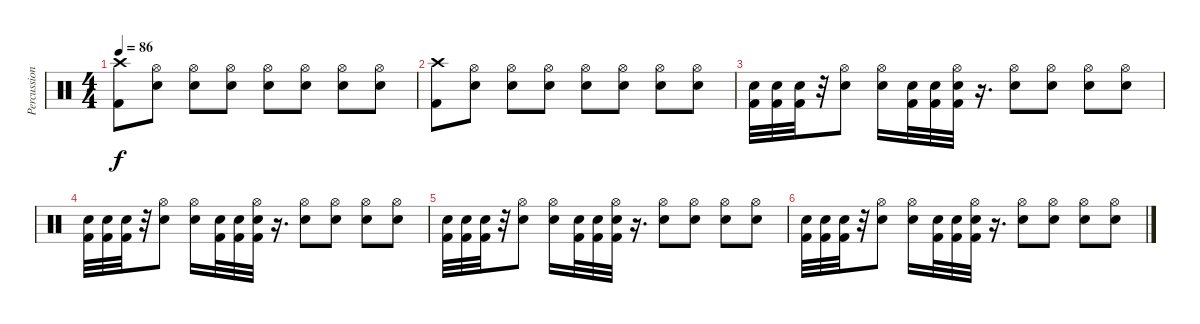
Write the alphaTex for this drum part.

\track ("Percussion" "Percussion") {instrument percussion}
\staff {score}
\articulation defaults
\ts (4 4)
\tempo 86
\clef neutral
\ks c
("Crash high (hit)" "Kick (hit) 2").8{dy f} ("Hi-Hat (open)" "Electric Snare (hit)").8 ("Hi-Hat (open)" "Electric Snare (hit)").8 ("Hi-Hat (open)" "Electric Snare (hit)").8 ("Hi-Hat (open)" "Electric Snare (hit)").8 ("Hi-Hat (open)" "Electric Snare (hit)").8 ("Hi-Hat (open)" "Electric Snare (hit)").8 ("Hi-Hat (open)" "Electric Snare (hit)").8 |
("Crash high (hit)" "Kick (hit) 2").8 ("Hi-Hat (open)" "Electric Snare (hit)").8 ("Hi-Hat (open)" "Electric Snare (hit)").8 ("Hi-Hat (open)" "Electric Snare (hit)").8 ("Hi-Hat (open)" "Electric Snare (hit)").8 ("Hi-Hat (open)" "Electric Snare (hit)").8 ("Hi-Hat (open)" "Electric Snare (hit)").8 ("Hi-Hat (open)" "Electric Snare (hit)").8 |
("Electric Snare (hit)" "Kick (hit) 2").32 ("Electric Snare (hit)" "Kick (hit) 2").32 ("Electric Snare (hit)" "Kick (hit) 2").32 r.32 ("Hi-Hat (open)" "Electric Snare (hit)").8 ("Hi-Hat (open)" "Electric Snare (hit)").16 ("Electric Snare (hit)" "Kick (hit) 2").32 ("Electric Snare (hit)" "Kick (hit) 2").32 ("Hi-Hat (open)" "Electric Snare (hit)" "Kick (hit) 2").32 r.16{d} ("Hi-Hat (open)" "Electric Snare (hit)").8 ("Hi-Hat (open)" "Electric Snare (hit)").8 ("Hi-Hat (open)" "Electric Snare (hit)").8 ("Hi-Hat (open)" "Electric Snare (hit)").8 |
("Electric Snare (hit)" "Kick (hit) 2").32 ("Electric Snare (hit)" "Kick (hit) 2").32 ("Electric Snare (hit)" "Kick (hit) 2").32 r.32 ("Hi-Hat (open)" "Electric Snare (hit)").8 ("Hi-Hat (open)" "Electric Snare (hit)").16 ("Electric Snare (hit)" "Kick (hit) 2").32 ("Electric Snare (hit)" "Kick (hit) 2").32 ("Hi-Hat (open)" "Electric Snare (hit)" "Kick (hit) 2").32 r.16{d} ("Hi-Hat (open)" "Electric Snare (hit)").8 ("Hi-Hat (open)" "Electric Snare (hit)").8 ("Hi-Hat (open)" "Electric Snare (hit)").8 ("Hi-Hat (open)" "Electric Snare (hit)").8 |
("Electric Snare (hit)" "Kick (hit) 2").32 ("Electric Snare (hit)" "Kick (hit) 2").32 ("Electric Snare (hit)" "Kick (hit) 2").32 r.32 ("Hi-Hat (open)" "Electric Snare (hit)").8 ("Hi-Hat (open)" "Electric Snare (hit)").16 ("Electric Snare (hit)" "Kick (hit) 2").32 ("Electric Snare (hit)" "Kick (hit) 2").32 ("Hi-Hat (open)" "Electric Snare (hit)" "Kick (hit) 2").32 r.16{d} ("Hi-Hat (open)" "Electric Snare (hit)").8 ("Hi-Hat (open)" "Electric Snare (hit)").8 ("Hi-Hat (open)" "Electric Snare (hit)").8 ("Hi-Hat (open)" "Electric Snare (hit)").8 |
("Electric Snare (hit)" "Kick (hit) 2").32 ("Electric Snare (hit)" "Kick (hit) 2").32 ("Electric Snare (hit)" "Kick (hit) 2").32 r.32 ("Hi-Hat (open)" "Electric Snare (hit)").8 ("Hi-Hat (open)" "Electric Snare (hit)").16 ("Electric Snare (hit)" "Kick (hit) 2").32 ("Electric Snare (hit)" "Kick (hit) 2").32 ("Hi-Hat (open)" "Electric Snare (hit)" "Kick (hit) 2").32 r.16{d} ("Hi-Hat (open)" "Electric Snare (hit)").8 ("Hi-Hat (open)" "Electric Snare (hit)").8 ("Hi-Hat (open)" "Electric Snare (hit)").8 ("Hi-Hat (open)" "Electric Snare (hit)").8
